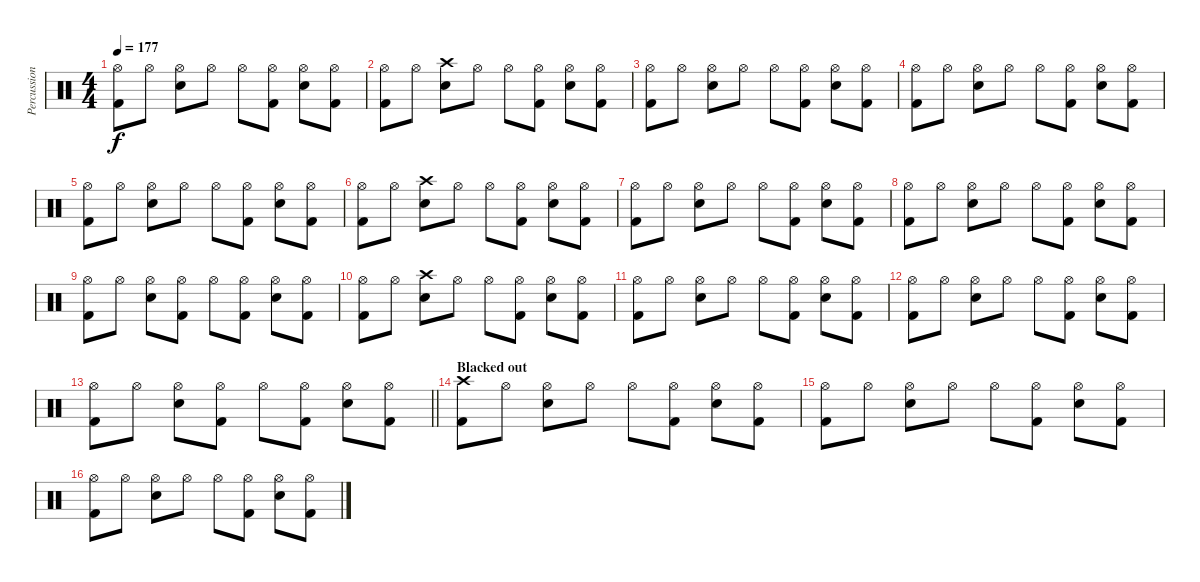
\track ("Percussion" "Percussion") {instrument percussion}
\staff {score}
\articulation defaults
\ts (4 4)
\tempo 177
\clef neutral
\ks c
("Hi-Hat (open)" "Kick (hit) 2").8{dy f} "Hi-Hat (open)".8 ("Hi-Hat (open)" "Snare (hit) 2").8 "Hi-Hat (open)".8 "Hi-Hat (open)".8 ("Hi-Hat (open)" "Kick (hit) 2").8 ("Hi-Hat (open)" "Snare (hit) 2").8 ("Hi-Hat (open)" "Kick (hit) 2").8 |
("Hi-Hat (open)" "Kick (hit) 2").8 "Hi-Hat (open)".8 ("Crash high (hit)" "Snare (hit) 2").8 "Hi-Hat (open)".8 "Hi-Hat (open)".8 ("Hi-Hat (open)" "Kick (hit) 2").8 ("Hi-Hat (open)" "Snare (hit) 2").8 ("Hi-Hat (open)" "Kick (hit) 2").8 |
("Hi-Hat (open)" "Kick (hit) 2").8 "Hi-Hat (open)".8 ("Hi-Hat (open)" "Snare (hit) 2").8 "Hi-Hat (open)".8 "Hi-Hat (open)".8 ("Hi-Hat (open)" "Kick (hit) 2").8 ("Hi-Hat (open)" "Snare (hit) 2").8 ("Hi-Hat (open)" "Kick (hit) 2").8 |
("Hi-Hat (open)" "Kick (hit) 2").8 "Hi-Hat (open)".8 ("Hi-Hat (open)" "Snare (hit) 2").8 "Hi-Hat (open)".8 "Hi-Hat (open)".8 ("Hi-Hat (open)" "Kick (hit) 2").8 ("Hi-Hat (open)" "Snare (hit) 2").8 ("Hi-Hat (open)" "Kick (hit) 2").8 |
("Hi-Hat (open)" "Kick (hit) 2").8 "Hi-Hat (open)".8 ("Hi-Hat (open)" "Snare (hit) 2").8 "Hi-Hat (open)".8 "Hi-Hat (open)".8 ("Hi-Hat (open)" "Kick (hit) 2").8 ("Hi-Hat (open)" "Snare (hit) 2").8 ("Hi-Hat (open)" "Kick (hit) 2").8 |
("Hi-Hat (open)" "Kick (hit) 2").8 "Hi-Hat (open)".8 ("Crash high (hit)" "Snare (hit) 2").8 "Hi-Hat (open)".8 "Hi-Hat (open)".8 ("Hi-Hat (open)" "Kick (hit) 2").8 ("Hi-Hat (open)" "Snare (hit) 2").8 ("Hi-Hat (open)" "Kick (hit) 2").8 |
("Hi-Hat (open)" "Kick (hit) 2").8 "Hi-Hat (open)".8 ("Hi-Hat (open)" "Snare (hit) 2").8 "Hi-Hat (open)".8 "Hi-Hat (open)".8 ("Hi-Hat (open)" "Kick (hit) 2").8 ("Hi-Hat (open)" "Snare (hit) 2").8 ("Hi-Hat (open)" "Kick (hit) 2").8 |
("Hi-Hat (open)" "Kick (hit) 2").8 "Hi-Hat (open)".8 ("Hi-Hat (open)" "Snare (hit) 2").8 "Hi-Hat (open)".8 "Hi-Hat (open)".8 ("Hi-Hat (open)" "Kick (hit) 2").8 ("Hi-Hat (open)" "Snare (hit) 2").8 ("Hi-Hat (open)" "Kick (hit) 2").8 |
("Hi-Hat (open)" "Kick (hit) 2").8 "Hi-Hat (open)".8 ("Hi-Hat (open)" "Snare (hit) 2").8 ("Hi-Hat (open)" "Kick (hit) 2").8 "Hi-Hat (open)".8 ("Hi-Hat (open)" "Kick (hit) 2").8 ("Hi-Hat (open)" "Snare (hit) 2").8 ("Hi-Hat (open)" "Kick (hit) 2").8 |
("Hi-Hat (open)" "Kick (hit) 2").8 "Hi-Hat (open)".8 ("Crash high (hit)" "Snare (hit) 2").8 "Hi-Hat (open)".8 "Hi-Hat (open)".8 ("Hi-Hat (open)" "Kick (hit) 2").8 ("Hi-Hat (open)" "Snare (hit) 2").8 ("Hi-Hat (open)" "Kick (hit) 2").8 |
("Hi-Hat (open)" "Kick (hit) 2").8 "Hi-Hat (open)".8 ("Hi-Hat (open)" "Snare (hit) 2").8 "Hi-Hat (open)".8 "Hi-Hat (open)".8 ("Hi-Hat (open)" "Kick (hit) 2").8 ("Hi-Hat (open)" "Snare (hit) 2").8 ("Hi-Hat (open)" "Kick (hit) 2").8 |
("Hi-Hat (open)" "Kick (hit) 2").8 "Hi-Hat (open)".8 ("Hi-Hat (open)" "Snare (hit) 2").8 "Hi-Hat (open)".8 "Hi-Hat (open)".8 ("Hi-Hat (open)" "Kick (hit) 2").8 ("Hi-Hat (open)" "Snare (hit) 2").8 ("Hi-Hat (open)" "Kick (hit) 2").8 |
\barLineRight lightlight
("Hi-Hat (open)" "Kick (hit) 2").8 "Hi-Hat (open)".8 ("Hi-Hat (open)" "Snare (hit) 2").8 ("Hi-Hat (open)" "Kick (hit) 2").8 "Hi-Hat (open)".8 ("Hi-Hat (open)" "Kick (hit) 2").8 ("Hi-Hat (open)" "Snare (hit) 2").8 ("Hi-Hat (open)" "Kick (hit) 2").8 |
\section ("" "Blacked out")
("Crash high (hit)" "Kick (hit) 2").8 "Hi-Hat (open)".8 ("Hi-Hat (open)" "Snare (hit) 2").8 "Hi-Hat (open)".8 "Hi-Hat (open)".8 ("Hi-Hat (open)" "Kick (hit) 2").8 ("Hi-Hat (open)" "Snare (hit) 2").8 ("Hi-Hat (open)" "Kick (hit) 2").8 |
("Hi-Hat (open)" "Kick (hit) 2").8 "Hi-Hat (open)".8 ("Hi-Hat (open)" "Snare (hit) 2").8 "Hi-Hat (open)".8 "Hi-Hat (open)".8 ("Hi-Hat (open)" "Kick (hit) 2").8 ("Hi-Hat (open)" "Snare (hit) 2").8 ("Hi-Hat (open)" "Kick (hit) 2").8 |
("Hi-Hat (open)" "Kick (hit) 2").8 "Hi-Hat (open)".8 ("Hi-Hat (open)" "Snare (hit) 2").8 "Hi-Hat (open)".8 "Hi-Hat (open)".8 ("Hi-Hat (open)" "Kick (hit) 2").8 ("Hi-Hat (open)" "Snare (hit) 2").8 ("Hi-Hat (open)" "Kick (hit) 2").8
